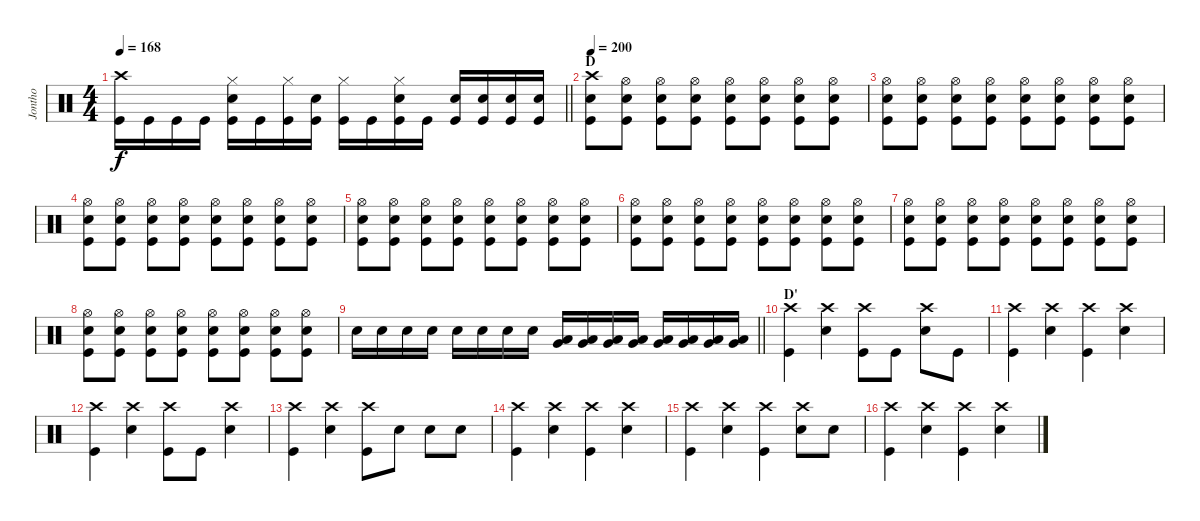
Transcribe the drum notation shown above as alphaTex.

\track ("Jontho" "Jontho") {instrument percussion}
\staff {score}
\articulation defaults
\ts (4 4)
\tempo 168
\clef neutral
\barLineRight lightlight
\ks c
("Crash high (hit)" "Kick (hit)").16{dy f} "Kick (hit)".16 "Kick (hit)".16 "Kick (hit)".16 ("Hi-Hat (closed)" "Snare (hit) 2" "Kick (hit)").16 "Kick (hit)".16 ("Hi-Hat (closed)" "Kick (hit)").16 ("Snare (hit) 2" "Kick (hit)").16 ("Hi-Hat (closed)" "Kick (hit)").16 "Kick (hit)".16 ("Hi-Hat (closed)" "Snare (hit) 2" "Kick (hit)").16 "Kick (hit)".16 ("Snare (hit) 2" "Kick (hit)").16 ("Snare (hit) 2" "Kick (hit)").16 ("Snare (hit) 2" "Kick (hit)").16 ("Snare (hit) 2" "Kick (hit)").16 |
\section ("" "D")
\tempo 200
("Crash high (hit)" "Snare (hit) 2" "Kick (hit)").8 ("Hi-Hat (open)" "Snare (hit) 2" "Kick (hit)").8 ("Hi-Hat (open)" "Snare (hit) 2" "Kick (hit)").8 ("Hi-Hat (open)" "Snare (hit) 2" "Kick (hit)").8 ("Hi-Hat (open)" "Snare (hit) 2" "Kick (hit)").8 ("Hi-Hat (open)" "Snare (hit) 2" "Kick (hit)").8 ("Hi-Hat (open)" "Snare (hit) 2" "Kick (hit)").8 ("Hi-Hat (open)" "Snare (hit) 2" "Kick (hit)").8 |
("Hi-Hat (open)" "Snare (hit) 2" "Kick (hit)").8 ("Hi-Hat (open)" "Snare (hit) 2" "Kick (hit)").8 ("Hi-Hat (open)" "Snare (hit) 2" "Kick (hit)").8 ("Hi-Hat (open)" "Snare (hit) 2" "Kick (hit)").8 ("Hi-Hat (open)" "Snare (hit) 2" "Kick (hit)").8 ("Hi-Hat (open)" "Snare (hit) 2" "Kick (hit)").8 ("Hi-Hat (open)" "Snare (hit) 2" "Kick (hit)").8 ("Hi-Hat (open)" "Snare (hit) 2" "Kick (hit)").8 |
("Hi-Hat (open)" "Snare (hit) 2" "Kick (hit)").8 ("Hi-Hat (open)" "Snare (hit) 2" "Kick (hit)").8 ("Hi-Hat (open)" "Snare (hit) 2" "Kick (hit)").8 ("Hi-Hat (open)" "Snare (hit) 2" "Kick (hit)").8 ("Hi-Hat (open)" "Snare (hit) 2" "Kick (hit)").8 ("Hi-Hat (open)" "Snare (hit) 2" "Kick (hit)").8 ("Hi-Hat (open)" "Snare (hit) 2" "Kick (hit)").8 ("Hi-Hat (open)" "Snare (hit) 2" "Kick (hit)").8 |
("Hi-Hat (open)" "Snare (hit) 2" "Kick (hit)").8 ("Hi-Hat (open)" "Snare (hit) 2" "Kick (hit)").8 ("Hi-Hat (open)" "Snare (hit) 2" "Kick (hit)").8 ("Hi-Hat (open)" "Snare (hit) 2" "Kick (hit)").8 ("Hi-Hat (open)" "Snare (hit) 2" "Kick (hit)").8 ("Hi-Hat (open)" "Snare (hit) 2" "Kick (hit)").8 ("Hi-Hat (open)" "Snare (hit) 2" "Kick (hit)").8 ("Hi-Hat (open)" "Snare (hit) 2" "Kick (hit)").8 |
("Hi-Hat (open)" "Snare (hit) 2" "Kick (hit)").8 ("Hi-Hat (open)" "Snare (hit) 2" "Kick (hit)").8 ("Hi-Hat (open)" "Snare (hit) 2" "Kick (hit)").8 ("Hi-Hat (open)" "Snare (hit) 2" "Kick (hit)").8 ("Hi-Hat (open)" "Snare (hit) 2" "Kick (hit)").8 ("Hi-Hat (open)" "Snare (hit) 2" "Kick (hit)").8 ("Hi-Hat (open)" "Snare (hit) 2" "Kick (hit)").8 ("Hi-Hat (open)" "Snare (hit) 2" "Kick (hit)").8 |
("Hi-Hat (open)" "Snare (hit) 2" "Kick (hit)").8 ("Hi-Hat (open)" "Snare (hit) 2" "Kick (hit)").8 ("Hi-Hat (open)" "Snare (hit) 2" "Kick (hit)").8 ("Hi-Hat (open)" "Snare (hit) 2" "Kick (hit)").8 ("Hi-Hat (open)" "Snare (hit) 2" "Kick (hit)").8 ("Hi-Hat (open)" "Snare (hit) 2" "Kick (hit)").8 ("Hi-Hat (open)" "Snare (hit) 2" "Kick (hit)").8 ("Hi-Hat (open)" "Snare (hit) 2" "Kick (hit)").8 |
("Hi-Hat (open)" "Snare (hit) 2" "Kick (hit)").8 ("Hi-Hat (open)" "Snare (hit) 2" "Kick (hit)").8 ("Hi-Hat (open)" "Snare (hit) 2" "Kick (hit)").8 ("Hi-Hat (open)" "Snare (hit) 2" "Kick (hit)").8 ("Hi-Hat (open)" "Snare (hit) 2" "Kick (hit)").8 ("Hi-Hat (open)" "Snare (hit) 2" "Kick (hit)").8 ("Hi-Hat (open)" "Snare (hit) 2" "Kick (hit)").8 ("Hi-Hat (open)" "Snare (hit) 2" "Kick (hit)").8 |
\barLineRight lightlight "Snare (hit) 2".16 "Snare (hit) 2".16 "Snare (hit) 2".16 "Snare (hit) 2".16 "Snare (hit) 2".16 "Snare (hit) 2".16 "Snare (hit) 2".16 "Snare (hit) 2".16
("Low Tom (hit)" "Very Low Tom (hit)").16 ("Low Tom (hit)" "Very Low Tom (hit)").16 ("Low Tom (hit)" "Very Low Tom (hit)").16 ("Low Tom (hit)" "Very Low Tom (hit)").16 ("Very Low Tom (hit)" "Low Floor Tom (hit)").16 ("Very Low Tom (hit)" "Low Floor Tom (hit)").16 ("Very Low Tom (hit)" "Low Floor Tom (hit)").16 ("Very Low Tom (hit)" "Low Floor Tom (hit)").16 |
\section ("" "D'")
("Crash high (hit)" "Kick (hit)").4 ("Crash high (hit)" "Snare (hit) 2").4 ("Crash high (hit)" "Kick (hit)").8 "Kick (hit)".8 ("Crash high (hit)" "Snare (hit) 2").8 "Kick (hit)".8 |
("Crash high (hit)" "Kick (hit)").4 ("Crash high (hit)" "Snare (hit) 2").4 ("Crash high (hit)" "Kick (hit)").4 ("Crash high (hit)" "Snare (hit) 2").4 |
("Crash high (hit)" "Kick (hit)").4 ("Crash high (hit)" "Snare (hit) 2").4 ("Crash high (hit)" "Kick (hit)").8 "Kick (hit)".8 ("Crash high (hit)" "Snare (hit) 2").4 |
("Crash high (hit)" "Kick (hit)").4 ("Crash high (hit)" "Snare (hit) 2").4 ("Crash high (hit)" "Kick (hit)").8 "Snare (hit) 2".8 "Snare (hit) 2".8 "Snare (hit) 2".8 |
("Crash high (hit)" "Kick (hit)").4 ("Crash high (hit)" "Snare (hit) 2").4 ("Crash high (hit)" "Kick (hit)").4 ("Crash high (hit)" "Snare (hit) 2").4 |
("Crash high (hit)" "Kick (hit)").4 ("Crash high (hit)" "Snare (hit) 2").4 ("Crash high (hit)" "Kick (hit)").4 ("Crash high (hit)" "Snare (hit) 2").8 "Snare (hit) 2".8 |
("Crash high (hit)" "Kick (hit)").4 ("Crash high (hit)" "Snare (hit) 2").4 ("Crash high (hit)" "Kick (hit)").4 ("Crash high (hit)" "Snare (hit) 2").4
